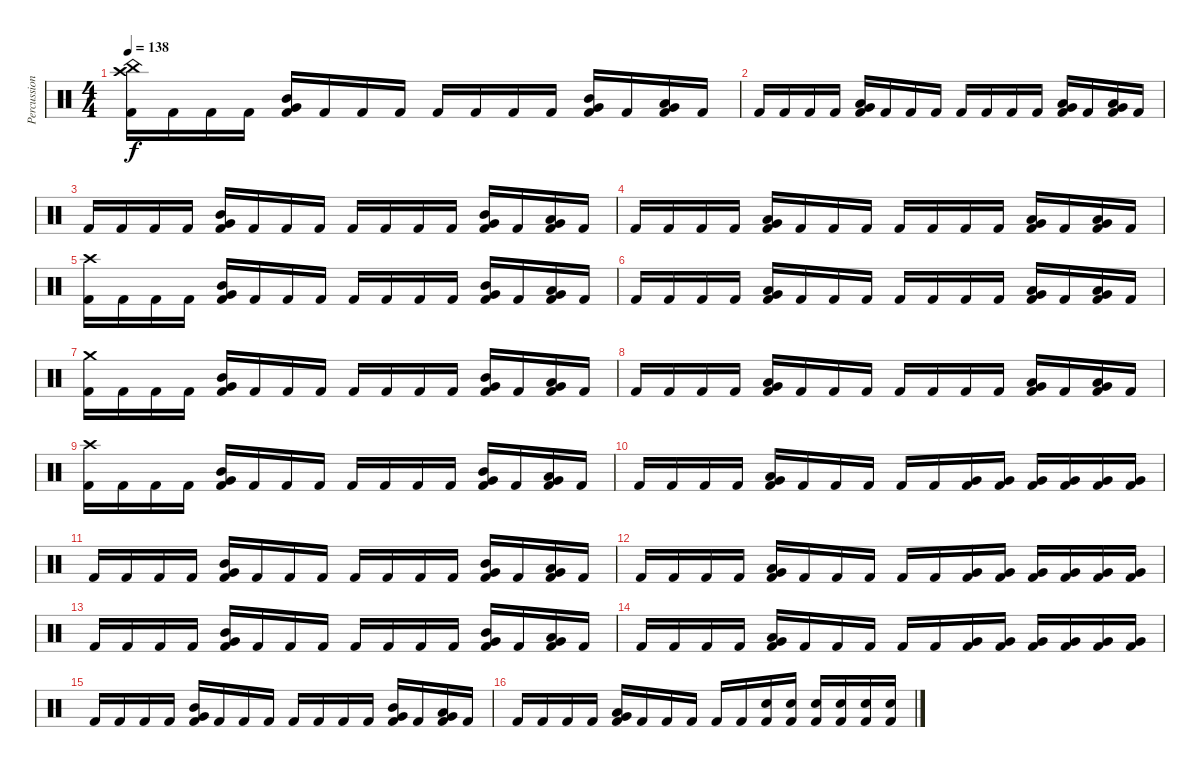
\track ("Percussion" "Percussion") {instrument percussion}
\staff {score}
\articulation defaults
\ts (4 4)
\tempo 138
\clef neutral
\ks c
("China (hit)" "Crash high (hit)" "Kick (hit) 2").16{dy f} "Kick (hit) 2".16 "Kick (hit) 2".16 "Kick (hit) 2".16 ("Mid Tom (hit)" "Very Low Tom (hit)" "Kick (hit) 2").16 "Kick (hit) 2".16 "Kick (hit) 2".16 "Kick (hit) 2".16 "Kick (hit) 2".16 "Kick (hit) 2".16 "Kick (hit) 2".16 "Kick (hit) 2".16 ("Mid Tom (hit)" "Very Low Tom (hit)" "Kick (hit) 2").16 "Kick (hit) 2".16 ("Low Tom (hit)" "Very Low Tom (hit)" "Kick (hit) 2").16 "Kick (hit) 2".16 |
"Kick (hit) 2".16 "Kick (hit) 2".16 "Kick (hit) 2".16 "Kick (hit) 2".16 ("Low Tom (hit)" "Very Low Tom (hit)" "Kick (hit) 2").16 "Kick (hit) 2".16 "Kick (hit) 2".16 "Kick (hit) 2".16 "Kick (hit) 2".16 "Kick (hit) 2".16 "Kick (hit) 2".16 "Kick (hit) 2".16 ("Low Tom (hit)" "Very Low Tom (hit)" "Kick (hit) 2").16 "Kick (hit) 2".16 ("Very Low Tom (hit)" "Low Floor Tom (hit)" "Kick (hit) 2").16 "Kick (hit) 2".16 |
"Kick (hit) 2".16 "Kick (hit) 2".16 "Kick (hit) 2".16 "Kick (hit) 2".16 ("Mid Tom (hit)" "Very Low Tom (hit)" "Kick (hit) 2").16 "Kick (hit) 2".16 "Kick (hit) 2".16 "Kick (hit) 2".16 "Kick (hit) 2".16 "Kick (hit) 2".16 "Kick (hit) 2".16 "Kick (hit) 2".16 ("Mid Tom (hit)" "Very Low Tom (hit)" "Kick (hit) 2").16 "Kick (hit) 2".16 ("Low Tom (hit)" "Very Low Tom (hit)" "Kick (hit) 2").16 "Kick (hit) 2".16 |
"Kick (hit) 2".16 "Kick (hit) 2".16 "Kick (hit) 2".16 "Kick (hit) 2".16 ("Low Tom (hit)" "Very Low Tom (hit)" "Kick (hit) 2").16 "Kick (hit) 2".16 "Kick (hit) 2".16 "Kick (hit) 2".16 "Kick (hit) 2".16 "Kick (hit) 2".16 "Kick (hit) 2".16 "Kick (hit) 2".16 ("Low Tom (hit)" "Very Low Tom (hit)" "Kick (hit) 2").16 "Kick (hit) 2".16 ("Very Low Tom (hit)" "Low Floor Tom (hit)" "Kick (hit) 2").16 "Kick (hit) 2".16 |
("Crash high (hit)" "Kick (hit) 2").16 "Kick (hit) 2".16 "Kick (hit) 2".16 "Kick (hit) 2".16 ("Mid Tom (hit)" "Very Low Tom (hit)" "Kick (hit) 2").16 "Kick (hit) 2".16 "Kick (hit) 2".16 "Kick (hit) 2".16 "Kick (hit) 2".16 "Kick (hit) 2".16 "Kick (hit) 2".16 "Kick (hit) 2".16 ("Mid Tom (hit)" "Very Low Tom (hit)" "Kick (hit) 2").16 "Kick (hit) 2".16 ("Low Tom (hit)" "Very Low Tom (hit)" "Kick (hit) 2").16 "Kick (hit) 2".16 |
"Kick (hit) 2".16 "Kick (hit) 2".16 "Kick (hit) 2".16 "Kick (hit) 2".16 ("Low Tom (hit)" "Very Low Tom (hit)" "Kick (hit) 2").16 "Kick (hit) 2".16 "Kick (hit) 2".16 "Kick (hit) 2".16 "Kick (hit) 2".16 "Kick (hit) 2".16 "Kick (hit) 2".16 "Kick (hit) 2".16 ("Low Tom (hit)" "Very Low Tom (hit)" "Kick (hit) 2").16 "Kick (hit) 2".16 ("Very Low Tom (hit)" "Low Floor Tom (hit)" "Kick (hit) 2").16 "Kick (hit) 2".16 |
("Crash medium (hit)" "Kick (hit) 2").16 "Kick (hit) 2".16 "Kick (hit) 2".16 "Kick (hit) 2".16 ("Mid Tom (hit)" "Very Low Tom (hit)" "Kick (hit) 2").16 "Kick (hit) 2".16 "Kick (hit) 2".16 "Kick (hit) 2".16 "Kick (hit) 2".16 "Kick (hit) 2".16 "Kick (hit) 2".16 "Kick (hit) 2".16 ("Mid Tom (hit)" "Very Low Tom (hit)" "Kick (hit) 2").16 "Kick (hit) 2".16 ("Low Tom (hit)" "Very Low Tom (hit)" "Kick (hit) 2").16 "Kick (hit) 2".16 |
"Kick (hit) 2".16 "Kick (hit) 2".16 "Kick (hit) 2".16 "Kick (hit) 2".16 ("Low Tom (hit)" "Very Low Tom (hit)" "Kick (hit) 2").16 "Kick (hit) 2".16 "Kick (hit) 2".16 "Kick (hit) 2".16 "Kick (hit) 2".16 "Kick (hit) 2".16 "Kick (hit) 2".16 "Kick (hit) 2".16 ("Low Tom (hit)" "Very Low Tom (hit)" "Kick (hit) 2").16 "Kick (hit) 2".16 ("Very Low Tom (hit)" "Low Floor Tom (hit)" "Kick (hit) 2").16 "Kick (hit) 2".16 |
("Crash high (hit)" "Kick (hit) 2").16 "Kick (hit) 2".16 "Kick (hit) 2".16 "Kick (hit) 2".16 ("Mid Tom (hit)" "Very Low Tom (hit)" "Kick (hit) 2").16 "Kick (hit) 2".16 "Kick (hit) 2".16 "Kick (hit) 2".16 "Kick (hit) 2".16 "Kick (hit) 2".16 "Kick (hit) 2".16 "Kick (hit) 2".16 ("Mid Tom (hit)" "Very Low Tom (hit)" "Kick (hit) 2").16 "Kick (hit) 2".16 ("Low Tom (hit)" "Very Low Tom (hit)" "Kick (hit) 2").16 "Kick (hit) 2".16 |
"Kick (hit) 2".16 "Kick (hit) 2".16 "Kick (hit) 2".16 "Kick (hit) 2".16 ("Low Tom (hit)" "Very Low Tom (hit)" "Kick (hit) 2").16 "Kick (hit) 2".16 "Kick (hit) 2".16 "Kick (hit) 2".16 "Kick (hit) 2".16 "Kick (hit) 2".16 ("Very Low Tom (hit)" "Kick (hit) 2").16 ("Very Low Tom (hit)" "Kick (hit) 2").16 ("Very Low Tom (hit)" "Kick (hit) 2").16 ("Very Low Tom (hit)" "Kick (hit) 2").16 ("Very Low Tom (hit)" "Kick (hit) 2").16 ("Very Low Tom (hit)" "Kick (hit) 2").16 |
"Kick (hit) 2".16 "Kick (hit) 2".16 "Kick (hit) 2".16 "Kick (hit) 2".16 ("Mid Tom (hit)" "Very Low Tom (hit)" "Kick (hit) 2").16 "Kick (hit) 2".16 "Kick (hit) 2".16 "Kick (hit) 2".16 "Kick (hit) 2".16 "Kick (hit) 2".16 "Kick (hit) 2".16 "Kick (hit) 2".16 ("Mid Tom (hit)" "Very Low Tom (hit)" "Kick (hit) 2").16 "Kick (hit) 2".16 ("Low Tom (hit)" "Very Low Tom (hit)" "Kick (hit) 2").16 "Kick (hit) 2".16 |
"Kick (hit) 2".16 "Kick (hit) 2".16 "Kick (hit) 2".16 "Kick (hit) 2".16 ("Low Tom (hit)" "Very Low Tom (hit)" "Kick (hit) 2").16 "Kick (hit) 2".16 "Kick (hit) 2".16 "Kick (hit) 2".16 "Kick (hit) 2".16 "Kick (hit) 2".16 ("Very Low Tom (hit)" "Kick (hit) 2").16 ("Very Low Tom (hit)" "Kick (hit) 2").16 ("Very Low Tom (hit)" "Kick (hit) 2").16 ("Very Low Tom (hit)" "Kick (hit) 2").16 ("Very Low Tom (hit)" "Kick (hit) 2").16 ("Very Low Tom (hit)" "Kick (hit) 2").16 |
"Kick (hit) 2".16 "Kick (hit) 2".16 "Kick (hit) 2".16 "Kick (hit) 2".16 ("Mid Tom (hit)" "Very Low Tom (hit)" "Kick (hit) 2").16 "Kick (hit) 2".16 "Kick (hit) 2".16 "Kick (hit) 2".16 "Kick (hit) 2".16 "Kick (hit) 2".16 "Kick (hit) 2".16 "Kick (hit) 2".16 ("Mid Tom (hit)" "Very Low Tom (hit)" "Kick (hit) 2").16 "Kick (hit) 2".16 ("Low Tom (hit)" "Very Low Tom (hit)" "Kick (hit) 2").16 "Kick (hit) 2".16 |
"Kick (hit) 2".16 "Kick (hit) 2".16 "Kick (hit) 2".16 "Kick (hit) 2".16 ("Low Tom (hit)" "Very Low Tom (hit)" "Kick (hit) 2").16 "Kick (hit) 2".16 "Kick (hit) 2".16 "Kick (hit) 2".16 "Kick (hit) 2".16 "Kick (hit) 2".16 ("Very Low Tom (hit)" "Kick (hit) 2").16 ("Very Low Tom (hit)" "Kick (hit) 2").16 ("Very Low Tom (hit)" "Kick (hit) 2").16 ("Very Low Tom (hit)" "Kick (hit) 2").16 ("Very Low Tom (hit)" "Kick (hit) 2").16 ("Very Low Tom (hit)" "Kick (hit) 2").16 |
"Kick (hit) 2".16 "Kick (hit) 2".16 "Kick (hit) 2".16 "Kick (hit) 2".16 ("Mid Tom (hit)" "Very Low Tom (hit)" "Kick (hit) 2").16 "Kick (hit) 2".16 "Kick (hit) 2".16 "Kick (hit) 2".16 "Kick (hit) 2".16 "Kick (hit) 2".16 "Kick (hit) 2".16 "Kick (hit) 2".16 ("Mid Tom (hit)" "Very Low Tom (hit)" "Kick (hit) 2").16 "Kick (hit) 2".16 ("Low Tom (hit)" "Very Low Tom (hit)" "Kick (hit) 2").16 "Kick (hit) 2".16 |
"Kick (hit) 2".16 "Kick (hit) 2".16 "Kick (hit) 2".16 "Kick (hit) 2".16 ("Low Tom (hit)" "Very Low Tom (hit)" "Kick (hit) 2").16 "Kick (hit) 2".16 "Kick (hit) 2".16 "Kick (hit) 2".16 "Kick (hit) 2".16 "Kick (hit) 2".16 ("Snare (hit) 2" "Kick (hit) 2").16 ("Snare (hit) 2" "Kick (hit) 2").16 ("Snare (hit) 2" "Kick (hit) 2").16 ("Snare (hit) 2" "Kick (hit) 2").16 ("Snare (hit) 2" "Kick (hit) 2").16 ("Snare (hit) 2" "Kick (hit) 2").16
